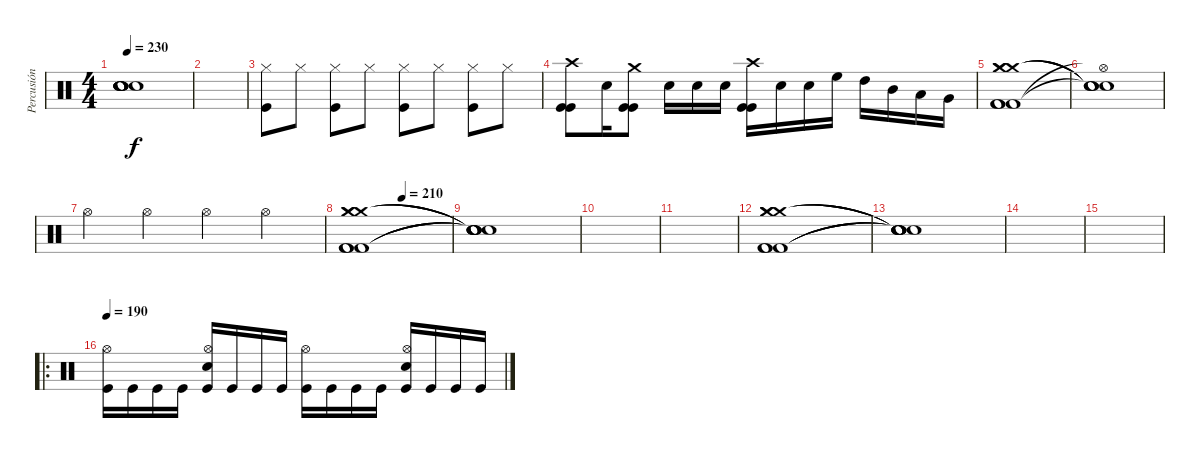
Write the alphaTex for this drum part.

\track ("Percusión" "Percusión") {instrument percussion}
\staff {score}
\articulation defaults
\ts (4 4)
\tempo 230
\clef neutral
\ks c
("Snare (hit)"{t} "Snare (hit)"{t} "Snare (hit)"{t} "Snare (hit)"{t} "Snare (hit)"{t} "Snare (hit)"{t}).1{dy f} |
|
("Kick (hit)" "Hi-Hat (closed)").8 "Hi-Hat (closed)".8 ("Kick (hit)" "Hi-Hat (closed)").8 "Hi-Hat (closed)".8 ("Kick (hit)" "Hi-Hat (closed)").8 "Hi-Hat (closed)".8 ("Kick (hit)" "Hi-Hat (closed)").8 "Hi-Hat (closed)".8 |
("Kick (hit)" "Kick (hit)" "Crash high (hit)").8 "Snare (hit) 2".16 ("Kick (hit)" "Kick (hit)" "Crash medium (hit)").8 "Snare (hit) 2".16 "Snare (hit) 2".16 "Snare (hit) 2".16 ("Kick (hit)" "Kick (hit)" "Crash high (hit)").16 "Snare (hit) 2".16 "Snare (hit) 2".16 "High Floor Tom (hit)".16 "High Tom (hit)".16 "Mid Tom (hit)".16 "Low Tom (hit)".16 "Very Low Tom (hit)".16 |
("Crash medium (hit)" "Crash medium (hit)" "Crash medium (hit)" "Kick (hit) 2" "Kick (hit) 2" "Kick (hit) 2").1 |
("Snare (hit)"{t} "Snare (hit)"{t} "Snare (hit)"{t} "Snare (hit)"{t} "Hi-Hat (open)"{t}).1 |
"Hi-Hat (open)".4 "Hi-Hat (open)".4 "Hi-Hat (open)".4 "Hi-Hat (open)".4 |
\tempo (210 0.5)
("Crash medium (hit)" "Crash medium (hit)" "Crash medium (hit)" "Kick (hit) 2" "Kick (hit) 2" "Kick (hit) 2").1 |
("Snare (hit)"{t} "Snare (hit)"{t} "Snare (hit)"{t} "Snare (hit)"{t} "Snare (hit)"{t} "Snare (hit)"{t}).1 |
|
|
("Crash medium (hit)" "Crash medium (hit)" "Crash medium (hit)" "Kick (hit) 2" "Kick (hit) 2" "Kick (hit) 2").1 |
("Snare (hit)"{t} "Snare (hit)"{t} "Snare (hit)"{t} "Snare (hit)"{t} "Snare (hit)"{t} "Snare (hit)"{t}).1 |
|
|
\ro
\tempo 170
\tempo 190
("Kick (hit)" "Hi-Hat (open)").16 "Kick (hit)".16 "Kick (hit)".16 "Kick (hit)".16 ("Kick (hit)" "Electric Snare (hit)" "Hi-Hat (open)").16 "Kick (hit)".16 "Kick (hit)".16 "Kick (hit)".16 ("Kick (hit)" "Hi-Hat (open)").16 "Kick (hit)".16 "Kick (hit)".16 "Kick (hit)".16 ("Kick (hit)" "Electric Snare (hit)" "Hi-Hat (open)").16 "Kick (hit)".16 "Kick (hit)".16 "Kick (hit)".16
